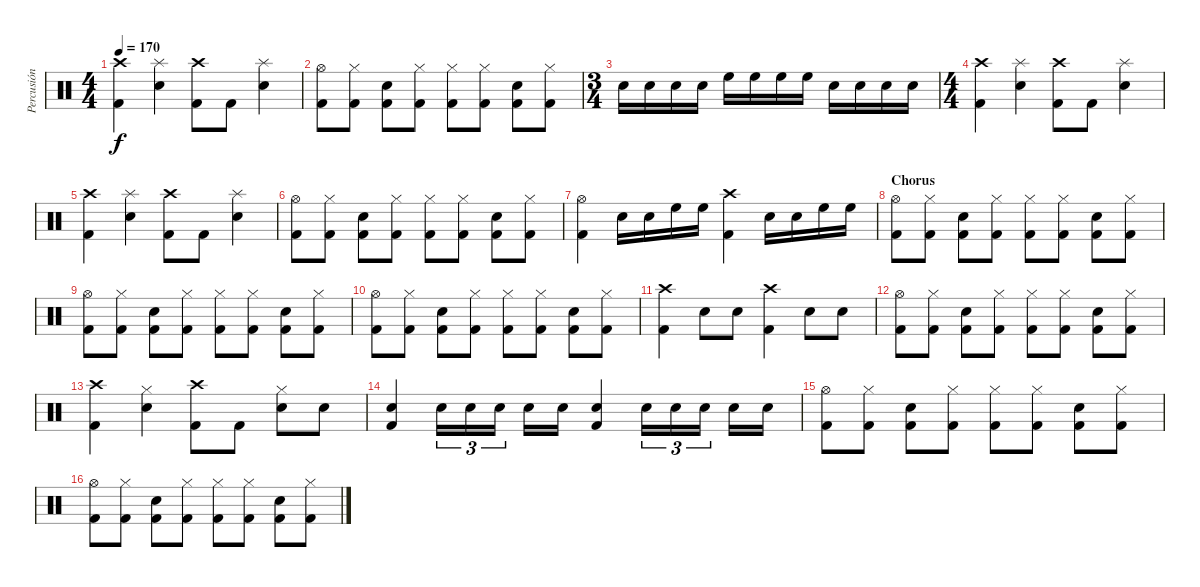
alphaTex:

\track ("Percusión" "Percusión") {instrument percussion}
\staff {score}
\articulation defaults
\ts (4 4)
\tempo 170
\clef neutral
\ks c
("Kick (hit) 2" "Crash high (hit)").4{dy f} ("Snare (hit) 2" "Splash (hit)").4 ("Kick (hit) 2" "Crash high (hit)").8 "Kick (hit) 2".8 ("Snare (hit) 2" "Splash (hit)").4 |
("Kick (hit) 2" "Hi-Hat (open)").8 ("Kick (hit) 2" "Hi-Hat (closed)").8 ("Kick (hit) 2" "Snare (hit) 2").8 ("Kick (hit) 2" "Hi-Hat (closed)").8 ("Kick (hit) 2" "Hi-Hat (closed)").8 ("Kick (hit) 2" "Hi-Hat (closed)").8 ("Kick (hit) 2" "Snare (hit) 2").8 ("Kick (hit) 2" "Hi-Hat (closed)").8 |
\ts (3 4)
"Snare (hit) 2".16 "Snare (hit) 2".16 "Snare (hit) 2".16 "Snare (hit) 2".16 "High Floor Tom (hit)".16 "High Floor Tom (hit)".16 "High Floor Tom (hit)".16 "High Floor Tom (hit)".16 "Snare (hit) 2".16 "Snare (hit) 2".16 "Snare (hit) 2".16 "Snare (hit) 2".16 |
\ts (4 4)
("Kick (hit) 2" "Crash high (hit)").4 ("Snare (hit) 2" "Splash (hit)").4 ("Kick (hit) 2" "Crash high (hit)").8 "Kick (hit) 2".8 ("Snare (hit) 2" "Splash (hit)").4 |
("Kick (hit) 2" "Crash high (hit)").4 ("Snare (hit) 2" "Splash (hit)").4 ("Kick (hit) 2" "Crash high (hit)").8 "Kick (hit) 2".8 ("Snare (hit) 2" "Splash (hit)").4 |
("Kick (hit) 2" "Hi-Hat (open)").8 ("Kick (hit) 2" "Hi-Hat (closed)").8 ("Kick (hit) 2" "Snare (hit) 2").8 ("Kick (hit) 2" "Hi-Hat (closed)").8 ("Kick (hit) 2" "Hi-Hat (closed)").8 ("Kick (hit) 2" "Hi-Hat (closed)").8 ("Kick (hit) 2" "Snare (hit) 2").8 ("Kick (hit) 2" "Hi-Hat (closed)").8 |
("Kick (hit) 2" "Hi-Hat (open)").4 "Snare (hit) 2".16 "Snare (hit) 2".16 "High Floor Tom (hit)".16 "High Floor Tom (hit)".16 ("Kick (hit) 2" "Crash high (hit)").4 "Snare (hit) 2".16 "Snare (hit) 2".16 "High Floor Tom (hit)".16 "High Floor Tom (hit)".16 |
\section ("" "Chorus")
("Kick (hit) 2" "Hi-Hat (open)").8 ("Kick (hit) 2" "Hi-Hat (closed)").8 ("Kick (hit) 2" "Snare (hit) 2").8 ("Kick (hit) 2" "Hi-Hat (closed)").8 ("Kick (hit) 2" "Hi-Hat (closed)").8 ("Kick (hit) 2" "Hi-Hat (closed)").8 ("Kick (hit) 2" "Snare (hit) 2").8 ("Kick (hit) 2" "Hi-Hat (closed)").8 |
("Kick (hit) 2" "Hi-Hat (open)").8 ("Kick (hit) 2" "Hi-Hat (closed)").8 ("Kick (hit) 2" "Snare (hit) 2").8 ("Kick (hit) 2" "Hi-Hat (closed)").8 ("Kick (hit) 2" "Hi-Hat (closed)").8 ("Kick (hit) 2" "Hi-Hat (closed)").8 ("Kick (hit) 2" "Snare (hit) 2").8 ("Kick (hit) 2" "Hi-Hat (closed)").8 |
("Kick (hit) 2" "Hi-Hat (open)").8 ("Kick (hit) 2" "Hi-Hat (closed)").8 ("Kick (hit) 2" "Snare (hit) 2").8 ("Kick (hit) 2" "Hi-Hat (closed)").8 ("Kick (hit) 2" "Hi-Hat (closed)").8 ("Kick (hit) 2" "Hi-Hat (closed)").8 ("Kick (hit) 2" "Snare (hit) 2").8 ("Kick (hit) 2" "Hi-Hat (closed)").8 |
("Kick (hit) 2" "Crash high (hit)").4 "Snare (hit) 2".8 "Snare (hit) 2".8 ("Kick (hit) 2" "Crash high (hit)").4 "Snare (hit) 2".8 "Snare (hit) 2".8 |
("Kick (hit) 2" "Hi-Hat (open)").8 ("Kick (hit) 2" "Hi-Hat (closed)").8 ("Kick (hit) 2" "Snare (hit) 2").8 ("Kick (hit) 2" "Hi-Hat (closed)").8 ("Kick (hit) 2" "Hi-Hat (closed)").8 ("Kick (hit) 2" "Hi-Hat (closed)").8 ("Kick (hit) 2" "Snare (hit) 2").8 ("Kick (hit) 2" "Hi-Hat (closed)").8 |
("Kick (hit) 2" "Crash high (hit)").4 ("Snare (hit) 2" "Hi-Hat (closed)").4 ("Kick (hit) 2" "Crash high (hit)").8 "Kick (hit) 2".8 ("Snare (hit) 2" "Hi-Hat (closed)").8 "Snare (hit) 2".8 |
("Kick (hit) 2" "Snare (hit) 2").4 "Snare (hit) 2".16{tu (3 2)} "Snare (hit) 2".16{tu (3 2)} "Snare (hit) 2".16{tu (3 2)} "Snare (hit) 2".16 "Snare (hit) 2".16 ("Kick (hit) 2" "Snare (hit) 2").4 "Snare (hit) 2".16{tu (3 2)} "Snare (hit) 2".16{tu (3 2)} "Snare (hit) 2".16{tu (3 2)} "Snare (hit) 2".16 "Snare (hit) 2".16 |
("Kick (hit) 2" "Hi-Hat (open)").8 ("Kick (hit) 2" "Hi-Hat (closed)").8 ("Kick (hit) 2" "Snare (hit) 2").8 ("Kick (hit) 2" "Hi-Hat (closed)").8 ("Kick (hit) 2" "Hi-Hat (closed)").8 ("Kick (hit) 2" "Hi-Hat (closed)").8 ("Kick (hit) 2" "Snare (hit) 2").8 ("Kick (hit) 2" "Hi-Hat (closed)").8 |
("Kick (hit) 2" "Hi-Hat (open)").8 ("Kick (hit) 2" "Hi-Hat (closed)").8 ("Kick (hit) 2" "Snare (hit) 2").8 ("Kick (hit) 2" "Hi-Hat (closed)").8 ("Kick (hit) 2" "Hi-Hat (closed)").8 ("Kick (hit) 2" "Hi-Hat (closed)").8 ("Kick (hit) 2" "Snare (hit) 2").8 ("Kick (hit) 2" "Hi-Hat (closed)").8
